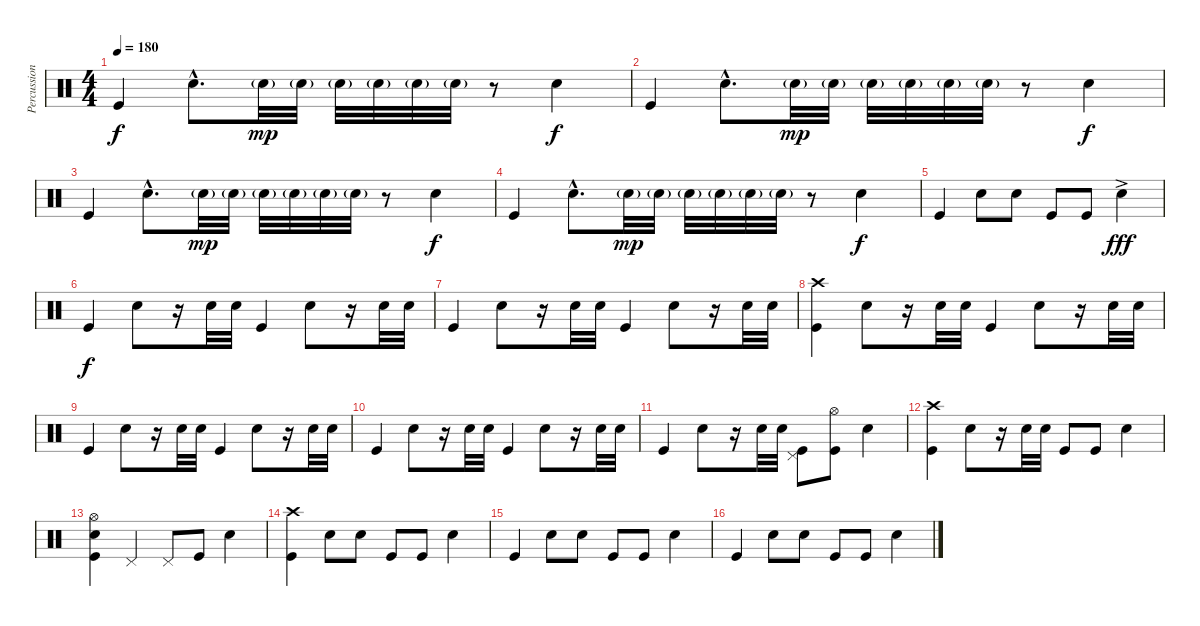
\track ("Percussion" "Percussion") {instrument percussion}
\staff {score}
\articulation defaults
\ts (4 4)
\tempo 180
\clef neutral
\ks c "Kick (hit)".4{dy f} "Snare (hit) 2"{hac}.8{d} "Snare (hit) 2"{g}.32{dy mp} "Snare (hit) 2"{g}.32 "Snare (hit) 2"{g}.32 "Snare (hit) 2"{g}.32 "Snare (hit) 2"{g}.32 "Snare (hit) 2"{g}.32
r.8 "Snare (hit) 2".4{dy f} |
"Kick (hit)".4 "Snare (hit) 2"{hac}.8{d} "Snare (hit) 2"{g}.32{dy mp} "Snare (hit) 2"{g}.32 "Snare (hit) 2"{g}.32 "Snare (hit) 2"{g}.32 "Snare (hit) 2"{g}.32 "Snare (hit) 2"{g}.32 r.8 "Snare (hit) 2".4{dy f} |
"Kick (hit)".4 "Snare (hit) 2"{hac}.8{d} "Snare (hit) 2"{g}.32{dy mp} "Snare (hit) 2"{g}.32 "Snare (hit) 2"{g}.32 "Snare (hit) 2"{g}.32 "Snare (hit) 2"{g}.32 "Snare (hit) 2"{g}.32 r.8 "Snare (hit) 2".4{dy f} |
"Kick (hit)".4 "Snare (hit) 2"{hac}.8{d} "Snare (hit) 2"{g}.32{dy mp} "Snare (hit) 2"{g}.32 "Snare (hit) 2"{g}.32 "Snare (hit) 2"{g}.32 "Snare (hit) 2"{g}.32 "Snare (hit) 2"{g}.32 r.8 "Snare (hit) 2".4{dy f} |
"Kick (hit)".4 "Snare (hit) 2".8 "Snare (hit) 2".8 "Kick (hit)".8 "Kick (hit)".8 "Snare (hit) 2"{ac}.4{dy fff} |
"Kick (hit)".4{dy f} "Snare (hit) 2".8 r.16 "Snare (hit) 2".32 "Snare (hit) 2".32 "Kick (hit)".4 "Snare (hit) 2".8 r.16 "Snare (hit) 2".32 "Snare (hit) 2".32 |
"Kick (hit)".4 "Snare (hit) 2".8 r.16 "Snare (hit) 2".32 "Snare (hit) 2".32 "Kick (hit)".4 "Snare (hit) 2".8 r.16 "Snare (hit) 2".32 "Snare (hit) 2".32 |
("Crash high (hit)" "Kick (hit)").4 "Snare (hit) 2".8 r.16 "Snare (hit) 2".32 "Snare (hit) 2".32 "Kick (hit)".4 "Snare (hit) 2".8 r.16 "Snare (hit) 2".32 "Snare (hit) 2".32 |
"Kick (hit)".4 "Snare (hit) 2".8 r.16 "Snare (hit) 2".32 "Snare (hit) 2".32 "Kick (hit)".4 "Snare (hit) 2".8 r.16 "Snare (hit) 2".32 "Snare (hit) 2".32 |
"Kick (hit)".4 "Snare (hit) 2".8 r.16 "Snare (hit) 2".32 "Snare (hit) 2".32 "Kick (hit)".4 "Snare (hit) 2".8 r.16 "Snare (hit) 2".32 "Snare (hit) 2".32 |
"Kick (hit)".4 "Snare (hit) 2".8 r.16 "Snare (hit) 2".32 "Snare (hit) 2".32 ("Kick (hit)" "Pedal Hi-Hat (hit)").8 ("Hi-Hat (open)" "Kick (hit)").8 "Snare (hit) 2".4 |
("Crash high (hit)" "Kick (hit)").4 "Snare (hit) 2".8 r.16 "Snare (hit) 2".32 "Snare (hit) 2".32 "Kick (hit)".8 "Kick (hit)".8 "Snare (hit) 2".4 |
("Hi-Hat (open)" "Snare (hit) 2" "Kick (hit)").4 "Pedal Hi-Hat (hit)".4 "Pedal Hi-Hat (hit)".8 "Kick (hit)".8 "Snare (hit) 2".4 |
("Crash high (hit)" "Kick (hit)").4 "Snare (hit) 2".8 "Snare (hit) 2".8 "Kick (hit)".8 "Kick (hit)".8 "Snare (hit) 2".4 |
"Kick (hit)".4 "Snare (hit) 2".8 "Snare (hit) 2".8 "Kick (hit)".8 "Kick (hit)".8 "Snare (hit) 2".4 |
"Kick (hit)".4 "Snare (hit) 2".8 "Snare (hit) 2".8 "Kick (hit)".8 "Kick (hit)".8 "Snare (hit) 2".4
